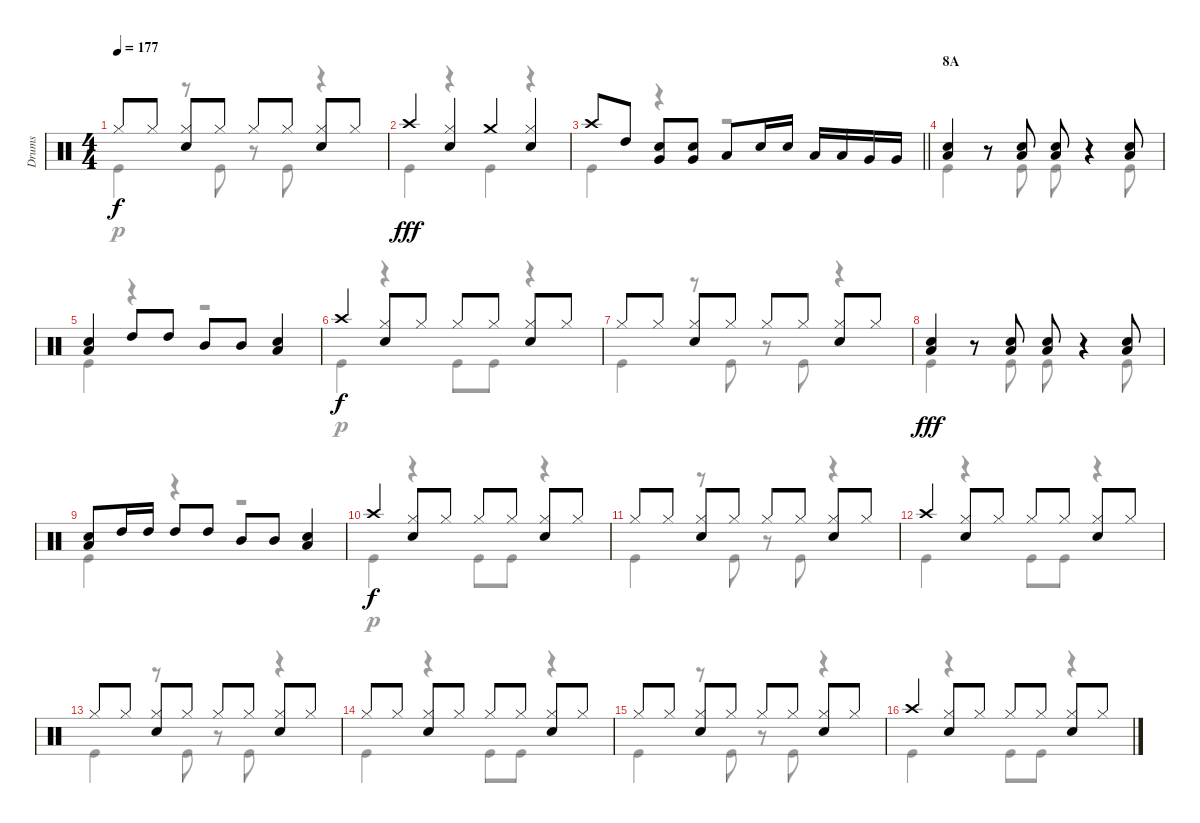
\track ("Drums" "Drums") {instrument percussion}
\staff {score}
\articulation defaults
\voice
\ts (4 4)
\tempo 177
\clef neutral
\ks c "Hi-Hat (closed)".8{dy f} "Hi-Hat (closed)".8
("Hi-Hat (closed)" "Snare (hit) 2").8 "Hi-Hat (closed)".8 "Hi-Hat (closed)".8 "Hi-Hat (closed)".8 ("Hi-Hat (closed)" "Snare (hit) 2").8 "Hi-Hat (closed)".8 |
"Crash high (hit)".4{dy fff} ("Hi-Hat (closed)" "Snare (hit) 2").4 "Crash medium (hit)".4 ("Hi-Hat (closed)" "Snare (hit) 2").4 |
\barLineRight lightlight "Crash high (hit)".8 "High Tom (hit)".8
("Snare (hit) 2" "Very Low Tom (hit)").8 ("Snare (hit) 2" "Very Low Tom (hit)").8 "Low Tom (hit)".8 "Snare (hit) 2".16 "Snare (hit) 2".16 "Low Tom (hit)".16 "Low Tom (hit)".16 "Very Low Tom (hit)".16 "Very Low Tom (hit)".16 |
\section ("" "8A")
("Low Tom (hit)" "Snare (hit) 2").4 r.8 ("Low Tom (hit)" "Snare (hit) 2").8 ("Low Tom (hit)" "Snare (hit) 2").8 r.4 ("Low Tom (hit)" "Snare (hit) 2").8 |
("Low Tom (hit)" "Snare (hit) 2").4 "High Tom (hit)".8 "High Tom (hit)".8 "Mid Tom (hit)".8 "Mid Tom (hit)".8 ("Low Tom (hit)" "Snare (hit) 2").4 |
"Crash high (hit)".4{dy f} ("Hi-Hat (closed)" "Snare (hit) 2").8 "Hi-Hat (closed)".8 "Hi-Hat (closed)".8 "Hi-Hat (closed)".8 ("Hi-Hat (closed)" "Snare (hit) 2").8 "Hi-Hat (closed)".8 |
"Hi-Hat (closed)".8 "Hi-Hat (closed)".8 ("Hi-Hat (closed)" "Snare (hit) 2").8 "Hi-Hat (closed)".8 "Hi-Hat (closed)".8 "Hi-Hat (closed)".8 ("Hi-Hat (closed)" "Snare (hit) 2").8 "Hi-Hat (closed)".8 |
("Low Tom (hit)" "Snare (hit) 2").4{dy fff} r.8 ("Low Tom (hit)" "Snare (hit) 2").8 ("Low Tom (hit)" "Snare (hit) 2").8 r.4 ("Low Tom (hit)" "Snare (hit) 2").8 |
("Low Tom (hit)" "Snare (hit) 2").8 "High Tom (hit)".16 "High Tom (hit)".16 "High Tom (hit)".8 "High Tom (hit)".8 "Mid Tom (hit)".8 "Mid Tom (hit)".8 ("Low Tom (hit)" "Snare (hit) 2").4 |
"Crash high (hit)".4{dy f} ("Hi-Hat (closed)" "Snare (hit) 2").8 "Hi-Hat (closed)".8 "Hi-Hat (closed)".8 "Hi-Hat (closed)".8 ("Hi-Hat (closed)" "Snare (hit) 2").8 "Hi-Hat (closed)".8 |
"Hi-Hat (closed)".8 "Hi-Hat (closed)".8 ("Hi-Hat (closed)" "Snare (hit) 2").8 "Hi-Hat (closed)".8 "Hi-Hat (closed)".8 "Hi-Hat (closed)".8 ("Hi-Hat (closed)" "Snare (hit) 2").8 "Hi-Hat (closed)".8 |
"Crash high (hit)".4 ("Hi-Hat (closed)" "Snare (hit) 2").8 "Hi-Hat (closed)".8 "Hi-Hat (closed)".8 "Hi-Hat (closed)".8 ("Hi-Hat (closed)" "Snare (hit) 2").8 "Hi-Hat (closed)".8 |
"Hi-Hat (closed)".8 "Hi-Hat (closed)".8 ("Hi-Hat (closed)" "Snare (hit) 2").8 "Hi-Hat (closed)".8 "Hi-Hat (closed)".8 "Hi-Hat (closed)".8 ("Hi-Hat (closed)" "Snare (hit) 2").8 "Hi-Hat (closed)".8 |
"Hi-Hat (closed)".8 "Hi-Hat (closed)".8 ("Hi-Hat (closed)" "Snare (hit) 2").8 "Hi-Hat (closed)".8 "Hi-Hat (closed)".8 "Hi-Hat (closed)".8 ("Hi-Hat (closed)" "Snare (hit) 2").8 "Hi-Hat (closed)".8 |
"Hi-Hat (closed)".8 "Hi-Hat (closed)".8 ("Hi-Hat (closed)" "Snare (hit) 2").8 "Hi-Hat (closed)".8 "Hi-Hat (closed)".8 "Hi-Hat (closed)".8 ("Hi-Hat (closed)" "Snare (hit) 2").8 "Hi-Hat (closed)".8 |
"Crash high (hit)".4 ("Hi-Hat (closed)" "Snare (hit) 2").8 "Hi-Hat (closed)".8 "Hi-Hat (closed)".8 "Hi-Hat (closed)".8 ("Hi-Hat (closed)" "Snare (hit) 2").8 "Hi-Hat (closed)".8
\voice
\clef neutral
\ottava regular
\simile none
\ks c "Kick (hit)".4{dy p}
r.8 "Kick (hit)".8 r.8 "Kick (hit)".8 r.4 |
"Kick (hit)".4{dy fff} r.4 "Kick (hit)".4 r.4 |
\barLineRight lightlight "Kick (hit)".4
r.4 r.2 |
"Kick (hit)".4 r.8 "Kick (hit)".8 "Kick (hit)".8 r.4 "Kick (hit)".8 |
"Kick (hit)".4 r.4 r.2 |
"Kick (hit)".4{dy p} r.4 "Kick (hit)".8 "Kick (hit)".8 r.4 |
"Kick (hit)".4 r.8 "Kick (hit)".8 r.8 "Kick (hit)".8 r.4 |
"Kick (hit)".4{dy fff} r.8 "Kick (hit)".8 "Kick (hit)".8 r.4 "Kick (hit)".8 |
"Kick (hit)".4 r.4 r.2 |
"Kick (hit)".4{dy p} r.4 "Kick (hit)".8 "Kick (hit)".8 r.4 |
"Kick (hit)".4 r.8 "Kick (hit)".8 r.8 "Kick (hit)".8 r.4 |
"Kick (hit)".4 r.4 "Kick (hit)".8 "Kick (hit)".8 r.4 |
"Kick (hit)".4 r.8 "Kick (hit)".8 r.8 "Kick (hit)".8 r.4 |
"Kick (hit)".4 r.4 "Kick (hit)".8 "Kick (hit)".8 r.4 |
"Kick (hit)".4 r.8 "Kick (hit)".8 r.8 "Kick (hit)".8 r.4 |
"Kick (hit)".4 r.4 "Kick (hit)".8 "Kick (hit)".8 r.4
